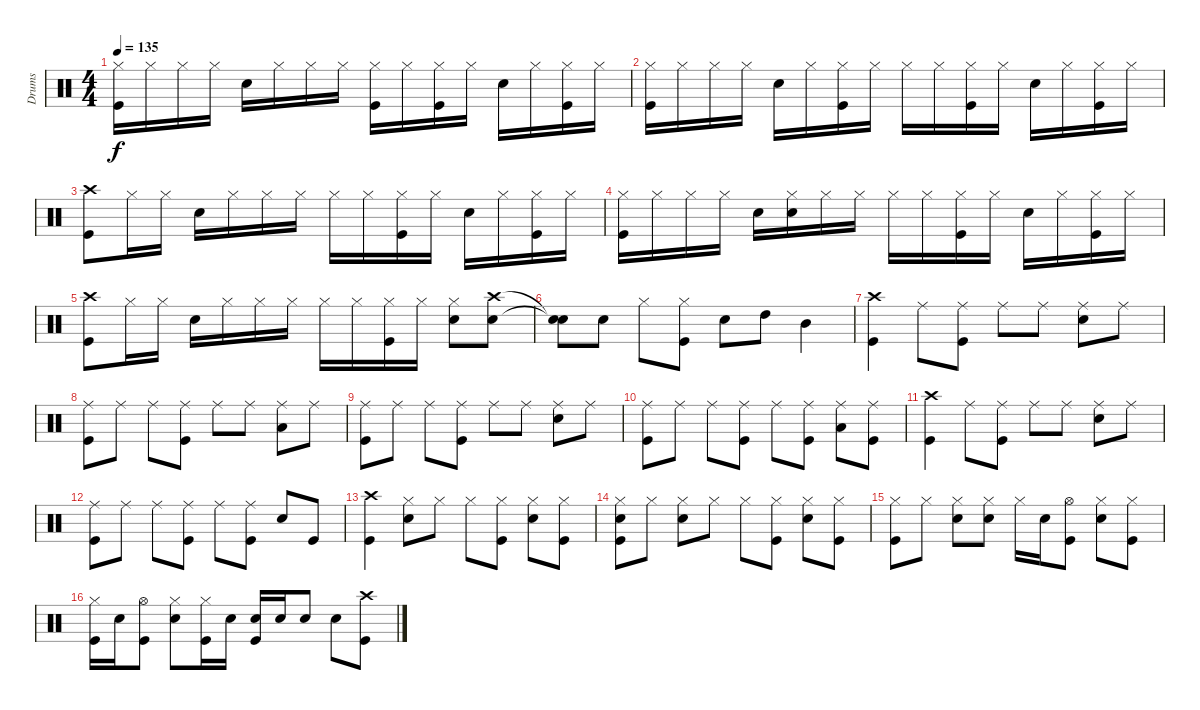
\track ("Drums" "Drums") {instrument percussion}
\staff {score}
\articulation defaults
\ts (4 4)
\tempo 135
\clef neutral
\ks c
("Kick (hit)" "Hi-Hat (closed)").16{dy f} "Hi-Hat (closed)".16 "Hi-Hat (closed)".16 "Hi-Hat (closed)".16 "Electric Snare (hit)".16 "Hi-Hat (closed)".16 "Hi-Hat (closed)".16 "Hi-Hat (closed)".16 ("Kick (hit)" "Hi-Hat (closed)").16 "Hi-Hat (closed)".16 ("Kick (hit)" "Hi-Hat (closed)").16 "Hi-Hat (closed)".16 "Electric Snare (hit)".16 "Hi-Hat (closed)".16 ("Kick (hit)" "Hi-Hat (closed)").16 "Hi-Hat (closed)".16 |
("Kick (hit)" "Hi-Hat (closed)").16 "Hi-Hat (closed)".16 "Hi-Hat (closed)".16 "Hi-Hat (closed)".16 "Electric Snare (hit)".16 "Hi-Hat (closed)".16 ("Kick (hit)" "Hi-Hat (closed)").16 "Hi-Hat (closed)".16 "Hi-Hat (closed)".16 "Hi-Hat (closed)".16 ("Kick (hit)" "Hi-Hat (closed)").16 "Hi-Hat (closed)".16 "Electric Snare (hit)".16 "Hi-Hat (closed)".16 ("Kick (hit)" "Hi-Hat (closed)").16 "Hi-Hat (closed)".16 |
("Kick (hit)" "Crash high (hit)").8 "Hi-Hat (closed)".16 "Hi-Hat (closed)".16 "Electric Snare (hit)".16 "Hi-Hat (closed)".16 "Hi-Hat (closed)".16 "Hi-Hat (closed)".16 "Hi-Hat (closed)".16 "Hi-Hat (closed)".16 ("Kick (hit)" "Hi-Hat (closed)").16 "Hi-Hat (closed)".16 "Electric Snare (hit)".16 "Hi-Hat (closed)".16 ("Kick (hit)" "Hi-Hat (closed)").16 "Hi-Hat (closed)".16 |
("Kick (hit)" "Hi-Hat (closed)").16 "Hi-Hat (closed)".16 "Hi-Hat (closed)".16 "Hi-Hat (closed)".16 "Electric Snare (hit)".16 ("Snare (hit)" "Hi-Hat (closed)").16 "Hi-Hat (closed)".16 "Hi-Hat (closed)".16 "Hi-Hat (closed)".16 "Hi-Hat (closed)".16 ("Kick (hit)" "Hi-Hat (closed)").16 "Hi-Hat (closed)".16 "Electric Snare (hit)".16 "Hi-Hat (closed)".16 ("Kick (hit)" "Hi-Hat (closed)").16 "Hi-Hat (closed)".16 |
("Kick (hit)" "Crash high (hit)").8 "Hi-Hat (closed)".16 "Hi-Hat (closed)".16 "Electric Snare (hit)".16 "Hi-Hat (closed)".16 "Hi-Hat (closed)".16 "Hi-Hat (closed)".16 "Hi-Hat (closed)".16 "Hi-Hat (closed)".16 ("Kick (hit)" "Hi-Hat (closed)").16 "Hi-Hat (closed)".16 ("Electric Snare (hit)" "Hi-Hat (closed)").8 ("Electric Snare (hit)" "Crash high (hit)").8 |
("Snare (hit)"{t} "Snare (hit)"{t}).8 "Electric Snare (hit)".8 "Hi-Hat (closed)".8 ("Kick (hit)" "Hi-Hat (closed)").8 "Electric Snare (hit)".8 "High Tom (hit)".8 "Mid Tom (hit)".4 |
("Kick (hit)" "Crash high (hit)").4 "Ride (middle)".8 ("Kick (hit)" "Ride (middle)").8 "Ride (middle)".8 "Ride (middle)".8 ("Electric Snare (hit)" "Ride (middle)").8 "Ride (middle)".8 |
("Kick (hit)" "Ride (middle)").8 "Ride (middle)".8 "Ride (middle)".8 ("Kick (hit)" "Ride (middle)").8 "Ride (middle)".8 "Ride (middle)".8 ("Low Tom (hit)" "Ride (middle)").8 "Ride (middle)".8 |
("Kick (hit)" "Ride (middle)").8 "Ride (middle)".8 "Ride (middle)".8 ("Kick (hit)" "Ride (middle)").8 "Ride (middle)".8 "Ride (middle)".8 ("Electric Snare (hit)" "Ride (middle)").8 "Ride (middle)".8 |
("Kick (hit)" "Ride (middle)").8 "Ride (middle)".8 "Ride (middle)".8 ("Kick (hit)" "Ride (middle)").8 "Ride (middle)".8 ("Kick (hit)" "Ride (middle)").8 ("Low Tom (hit)" "Ride (middle)").8 ("Kick (hit)" "Ride (middle)").8 |
("Kick (hit)" "Crash high (hit)").4 "Ride (middle)".8 ("Kick (hit)" "Ride (middle)").8 "Ride (middle)".8 "Ride (middle)".8 ("Electric Snare (hit)" "Ride (middle)").8 "Ride (middle)".8 |
("Kick (hit)" "Ride (middle)").8 "Ride (middle)".8 "Ride (middle)".8 ("Kick (hit)" "Ride (middle)").8 "Ride (middle)".8 ("Kick (hit)" "Ride (middle)").8 "Electric Snare (hit)".8 "Kick (hit)".8 |
("Kick (hit)" "Crash high (hit)").4 ("Electric Snare (hit)" "Hi-Hat (closed)").8 "Hi-Hat (closed)".8 "Hi-Hat (closed)".8 ("Kick (hit)" "Hi-Hat (closed)").8 ("Electric Snare (hit)" "Hi-Hat (closed)").8 ("Kick (hit)" "Hi-Hat (closed)").8 |
("Snare (hit)" "Kick (hit)" "Hi-Hat (closed)").8 "Hi-Hat (closed)".8 ("Electric Snare (hit)" "Hi-Hat (closed)").8 "Hi-Hat (closed)".8 "Hi-Hat (closed)".8 ("Kick (hit)" "Hi-Hat (closed)").8 ("Electric Snare (hit)" "Hi-Hat (closed)").8 ("Kick (hit)" "Hi-Hat (closed)").8 |
("Kick (hit)" "Hi-Hat (closed)").8 "Hi-Hat (closed)".8 ("Electric Snare (hit)" "Hi-Hat (closed)").8 ("Electric Snare (hit)" "Hi-Hat (closed)").8 "Hi-Hat (closed)".16 "Electric Snare (hit)".16 ("Kick (hit)" "Hi-Hat (open)").8 ("Electric Snare (hit)" "Hi-Hat (closed)").8 ("Kick (hit)" "Hi-Hat (closed)").8 |
("Kick (hit)" "Hi-Hat (closed)").16 "Electric Snare (hit)".16 ("Kick (hit)" "Hi-Hat (open)").8 ("Electric Snare (hit)" "Hi-Hat (closed)").8 ("Kick (hit)" "Hi-Hat (closed)").16 "Electric Snare (hit)".16 ("Kick (hit)" "Electric Snare (hit)").16 "Electric Snare (hit)".16 "Electric Snare (hit)".8 "Electric Snare (hit)".8 ("Kick (hit)" "Crash high (hit)").8
